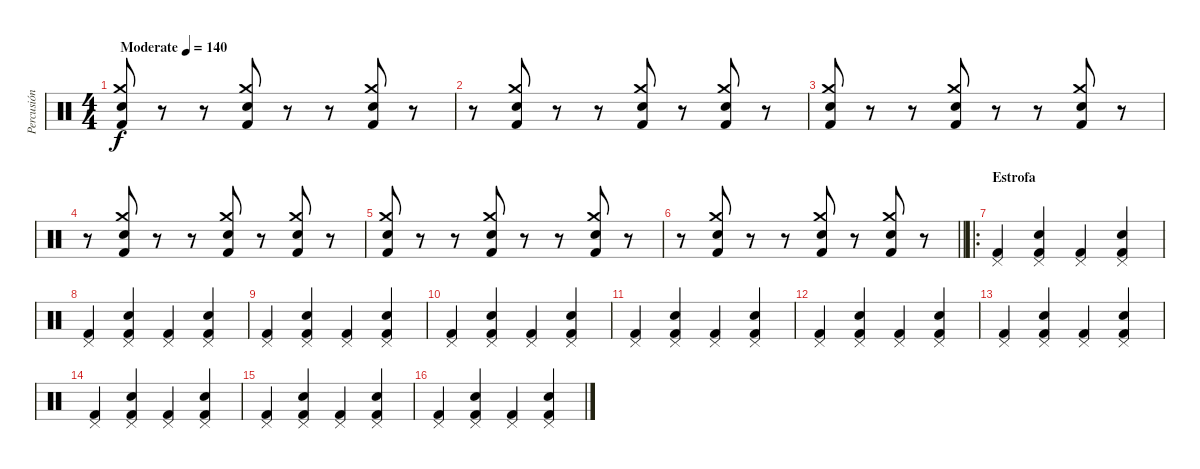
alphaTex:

\track ("Percusión" "Percusión") {instrument percussion}
\staff {score}
\articulation defaults
\ts (4 4)
\tempo (140 "Moderate")
\clef neutral
\ks c
("Kick (hit) 2" "Crash medium (hit)" "Electric Snare (hit)").8{dy f} r.8 r.8 ("Kick (hit) 2" "Crash medium (hit)" "Electric Snare (hit)").8 r.8 r.8 ("Kick (hit) 2" "Crash medium (hit)" "Electric Snare (hit)").8 r.8 |
r.8 ("Kick (hit) 2" "Crash medium (hit)" "Electric Snare (hit)").8 r.8 r.8 ("Kick (hit) 2" "Crash medium (hit)" "Electric Snare (hit)").8 r.8 ("Kick (hit) 2" "Crash medium (hit)" "Electric Snare (hit)").8 r.8 |
("Kick (hit) 2" "Crash medium (hit)" "Electric Snare (hit)").8 r.8 r.8 ("Kick (hit) 2" "Crash medium (hit)" "Electric Snare (hit)").8 r.8 r.8 ("Kick (hit) 2" "Crash medium (hit)" "Electric Snare (hit)").8 r.8 |
r.8 ("Kick (hit) 2" "Crash medium (hit)" "Electric Snare (hit)").8 r.8 r.8 ("Kick (hit) 2" "Crash medium (hit)" "Electric Snare (hit)").8 r.8 ("Kick (hit) 2" "Crash medium (hit)" "Electric Snare (hit)").8 r.8 |
("Kick (hit) 2" "Crash medium (hit)" "Electric Snare (hit)").8 r.8 r.8 ("Kick (hit) 2" "Crash medium (hit)" "Electric Snare (hit)").8 r.8 r.8 ("Kick (hit) 2" "Crash medium (hit)" "Electric Snare (hit)").8 r.8 |
\barLineRight lightlight
r.8 ("Kick (hit) 2" "Crash medium (hit)" "Electric Snare (hit)").8 r.8 r.8 ("Kick (hit) 2" "Crash medium (hit)" "Electric Snare (hit)").8 r.8 ("Kick (hit) 2" "Crash medium (hit)" "Electric Snare (hit)").8 r.8 |
\ro
\section ("" "Estrofa")
("Pedal Hi-Hat (hit)" "Kick (hit) 2").4 ("Pedal Hi-Hat (hit)" "Electric Snare (hit)" "Kick (hit) 2").4 ("Pedal Hi-Hat (hit)" "Kick (hit) 2").4 ("Pedal Hi-Hat (hit)" "Electric Snare (hit)" "Kick (hit) 2").4 |
("Pedal Hi-Hat (hit)" "Kick (hit) 2").4 ("Pedal Hi-Hat (hit)" "Electric Snare (hit)" "Kick (hit) 2").4 ("Pedal Hi-Hat (hit)" "Kick (hit) 2").4 ("Pedal Hi-Hat (hit)" "Electric Snare (hit)" "Kick (hit) 2").4 |
("Pedal Hi-Hat (hit)" "Kick (hit) 2").4 ("Pedal Hi-Hat (hit)" "Electric Snare (hit)" "Kick (hit) 2").4 ("Pedal Hi-Hat (hit)" "Kick (hit) 2").4 ("Pedal Hi-Hat (hit)" "Electric Snare (hit)" "Kick (hit) 2").4 |
("Pedal Hi-Hat (hit)" "Kick (hit) 2").4 ("Pedal Hi-Hat (hit)" "Electric Snare (hit)" "Kick (hit) 2").4 ("Pedal Hi-Hat (hit)" "Kick (hit) 2").4 ("Pedal Hi-Hat (hit)" "Electric Snare (hit)" "Kick (hit) 2").4 |
("Pedal Hi-Hat (hit)" "Kick (hit) 2").4 ("Pedal Hi-Hat (hit)" "Electric Snare (hit)" "Kick (hit) 2").4 ("Pedal Hi-Hat (hit)" "Kick (hit) 2").4 ("Pedal Hi-Hat (hit)" "Electric Snare (hit)" "Kick (hit) 2").4 |
("Pedal Hi-Hat (hit)" "Kick (hit) 2").4 ("Pedal Hi-Hat (hit)" "Electric Snare (hit)" "Kick (hit) 2").4 ("Pedal Hi-Hat (hit)" "Kick (hit) 2").4 ("Pedal Hi-Hat (hit)" "Electric Snare (hit)" "Kick (hit) 2").4 |
("Pedal Hi-Hat (hit)" "Kick (hit) 2").4 ("Pedal Hi-Hat (hit)" "Electric Snare (hit)" "Kick (hit) 2").4 ("Pedal Hi-Hat (hit)" "Kick (hit) 2").4 ("Pedal Hi-Hat (hit)" "Electric Snare (hit)" "Kick (hit) 2").4 |
("Pedal Hi-Hat (hit)" "Kick (hit) 2").4 ("Pedal Hi-Hat (hit)" "Electric Snare (hit)" "Kick (hit) 2").4 ("Pedal Hi-Hat (hit)" "Kick (hit) 2").4 ("Pedal Hi-Hat (hit)" "Electric Snare (hit)" "Kick (hit) 2").4 |
("Pedal Hi-Hat (hit)" "Kick (hit) 2").4 ("Pedal Hi-Hat (hit)" "Electric Snare (hit)" "Kick (hit) 2").4 ("Pedal Hi-Hat (hit)" "Kick (hit) 2").4 ("Pedal Hi-Hat (hit)" "Electric Snare (hit)" "Kick (hit) 2").4 |
("Pedal Hi-Hat (hit)" "Kick (hit) 2").4 ("Pedal Hi-Hat (hit)" "Electric Snare (hit)" "Kick (hit) 2").4 ("Pedal Hi-Hat (hit)" "Kick (hit) 2").4 ("Pedal Hi-Hat (hit)" "Electric Snare (hit)" "Kick (hit) 2").4
